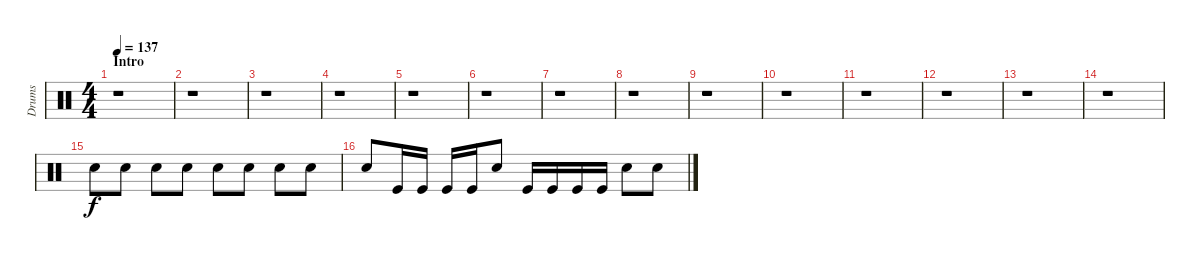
\track ("Drums" "Drums") {instrument percussion}
\staff {score}
\articulation defaults
\ts (4 4)
\section ("" "Intro ")
\tempo 137
\clef neutral
\ks c
r.1{dy f} |
r.1 |
r.1 |
r.1 |
r.1 |
r.1 |
r.1 |
r.1 |
r.1 |
r.1 |
r.1 |
r.1 |
r.1 |
r.1 |
"Electric Snare (hit)".8 "Electric Snare (hit)".8 "Electric Snare (hit)".8 "Electric Snare (hit)".8 "Electric Snare (hit)".8 "Electric Snare (hit)".8 "Electric Snare (hit)".8 "Electric Snare (hit)".8 |
"Electric Snare (hit)".8 "Kick (hit)".16 "Kick (hit)".16 "Kick (hit)".16 "Kick (hit)".16 "Electric Snare (hit)".8 "Kick (hit)".16 "Kick (hit)".16 "Kick (hit)".16 "Kick (hit)".16 "Electric Snare (hit)".8 "Electric Snare (hit)".8
